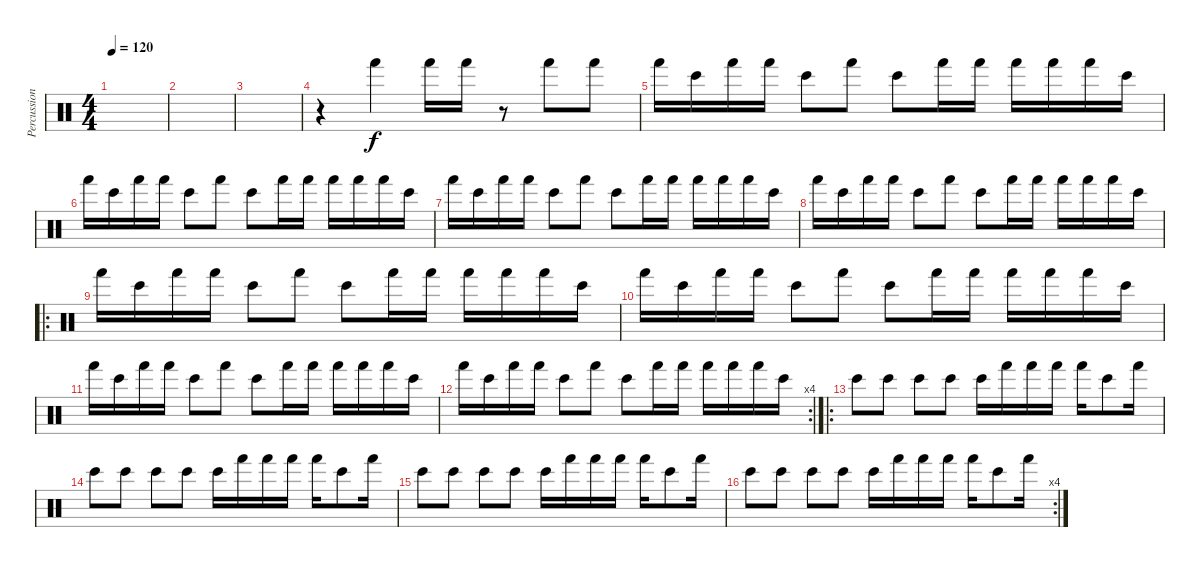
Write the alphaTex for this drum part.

\track ("Percussions" "Percussion") {instrument percussion}
\staff {score}
\articulation defaults
\ts (4 4)
\tempo 120
\clef neutral
\ks c
|
|
|
r.4 "Hand (hit)".4 "Hand (hit)".16 "Hand (hit)".16 r.8 "Hand (hit)".8 "Hand (hit)".8 |
"Hand (hit)".16 "Bongo High (hit)".16 "Hand (hit)".16 "Hand (hit)".16 "Bongo High (hit)".8 "Hand (hit)".8 "Bongo High (hit)".8 "Hand (hit)".16 "Hand (hit)".16 "Hand (hit)".16 "Hand (hit)".16 "Hand (hit)".16 "Bongo High (hit)".16 |
"Hand (hit)".16 "Bongo High (hit)".16 "Hand (hit)".16 "Hand (hit)".16 "Bongo High (hit)".8 "Hand (hit)".8 "Bongo High (hit)".8 "Hand (hit)".16 "Hand (hit)".16 "Hand (hit)".16 "Hand (hit)".16 "Hand (hit)".16 "Bongo High (hit)".16 |
"Hand (hit)".16 "Bongo High (hit)".16 "Hand (hit)".16 "Hand (hit)".16 "Bongo High (hit)".8 "Hand (hit)".8 "Bongo High (hit)".8 "Hand (hit)".16 "Hand (hit)".16 "Hand (hit)".16 "Hand (hit)".16 "Hand (hit)".16 "Bongo High (hit)".16 |
"Hand (hit)".16 "Bongo High (hit)".16 "Hand (hit)".16 "Hand (hit)".16 "Bongo High (hit)".8 "Hand (hit)".8 "Bongo High (hit)".8 "Hand (hit)".16 "Hand (hit)".16 "Hand (hit)".16 "Hand (hit)".16 "Hand (hit)".16 "Bongo High (hit)".16 |
\ro "Hand (hit)".16 "Bongo High (hit)".16 "Hand (hit)".16 "Hand (hit)".16 "Bongo High (hit)".8 "Hand (hit)".8 "Bongo High (hit)".8 "Hand (hit)".16 "Hand (hit)".16 "Hand (hit)".16 "Hand (hit)".16 "Hand (hit)".16 "Bongo High (hit)".16
|
"Hand (hit)".16 "Bongo High (hit)".16 "Hand (hit)".16 "Hand (hit)".16 "Bongo High (hit)".8 "Hand (hit)".8 "Bongo High (hit)".8 "Hand (hit)".16 "Hand (hit)".16 "Hand (hit)".16 "Hand (hit)".16 "Hand (hit)".16 "Bongo High (hit)".16 |
"Hand (hit)".16 "Bongo High (hit)".16 "Hand (hit)".16 "Hand (hit)".16 "Bongo High (hit)".8 "Hand (hit)".8 "Bongo High (hit)".8 "Hand (hit)".16 "Hand (hit)".16 "Hand (hit)".16 "Hand (hit)".16 "Hand (hit)".16 "Bongo High (hit)".16 |
\rc 4 "Hand (hit)".16 "Bongo High (hit)".16 "Hand (hit)".16 "Hand (hit)".16 "Bongo High (hit)".8 "Hand (hit)".8 "Bongo High (hit)".8 "Hand (hit)".16 "Hand (hit)".16 "Hand (hit)".16 "Hand (hit)".16 "Hand (hit)".16 "Bongo High (hit)".16
|
\ro "Bongo High (hit)".8 "Bongo High (hit)".8 "Bongo High (hit)".8 "Bongo High (hit)".8 "Bongo High (hit)".16 "Hand (hit)".16 "Hand (hit)".16 "Hand (hit)".16 "Hand (hit)".16 "Bongo High (hit)".8 "Hand (hit)".16
|
"Bongo High (hit)".8 "Bongo High (hit)".8 "Bongo High (hit)".8 "Bongo High (hit)".8 "Bongo High (hit)".16 "Hand (hit)".16 "Hand (hit)".16 "Hand (hit)".16 "Hand (hit)".16 "Bongo High (hit)".8 "Hand (hit)".16 |
"Bongo High (hit)".8 "Bongo High (hit)".8 "Bongo High (hit)".8 "Bongo High (hit)".8 "Bongo High (hit)".16 "Hand (hit)".16 "Hand (hit)".16 "Hand (hit)".16 "Hand (hit)".16 "Bongo High (hit)".8 "Hand (hit)".16 |
\rc 4 "Bongo High (hit)".8 "Bongo High (hit)".8 "Bongo High (hit)".8 "Bongo High (hit)".8 "Bongo High (hit)".16 "Hand (hit)".16 "Hand (hit)".16 "Hand (hit)".16 "Hand (hit)".16 "Bongo High (hit)".8 "Hand (hit)".16
